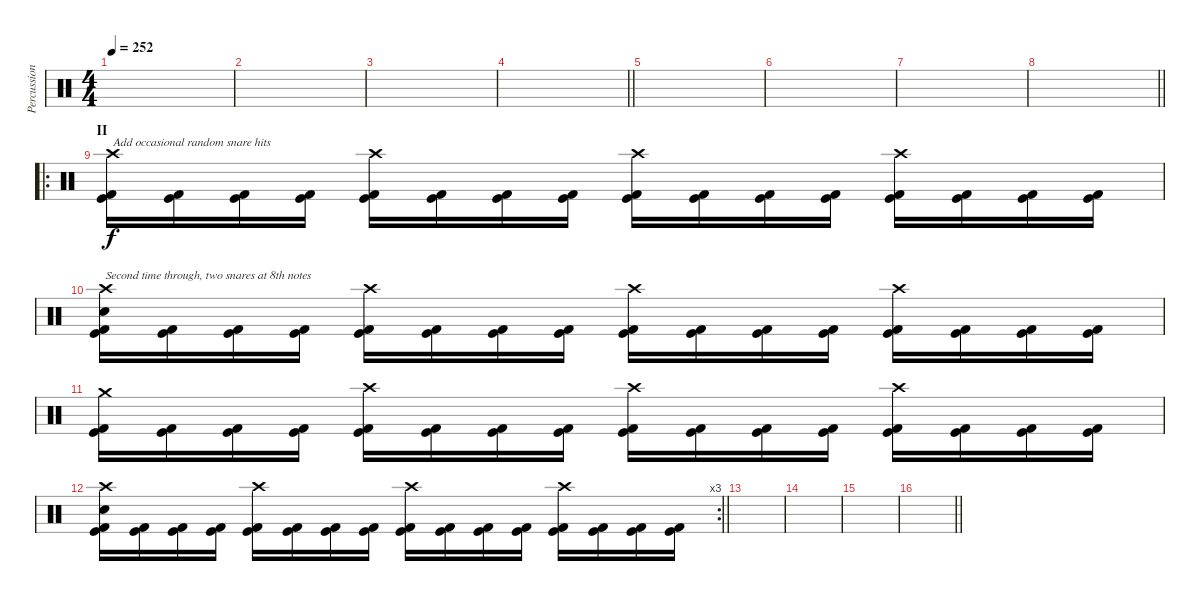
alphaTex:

\track ("Percussion" "Percussion") {mute instrument percussion}
\staff {score}
\articulation defaults
\ts (4 4)
\tempo 252
\clef neutral
\ks c
|
|
|
\barLineRight lightlight
|
|
|
|
\barLineRight lightlight
|
\ro
\section ("" "II")
("Crash high (hit)" "Kick (hit)" "Kick (hit) 2").16{txt "Add occasional random snare hits"} ("Kick (hit)" "Kick (hit) 2").16 ("Kick (hit)" "Kick (hit) 2").16 ("Kick (hit)" "Kick (hit) 2").16 ("Crash high (hit)" "Kick (hit)" "Kick (hit) 2").16 ("Kick (hit)" "Kick (hit) 2").16 ("Kick (hit)" "Kick (hit) 2").16 ("Kick (hit)" "Kick (hit) 2").16 ("Crash high (hit)" "Kick (hit)" "Kick (hit) 2").16 ("Kick (hit)" "Kick (hit) 2").16 ("Kick (hit)" "Kick (hit) 2").16 ("Kick (hit)" "Kick (hit) 2").16 ("Crash high (hit)" "Kick (hit)" "Kick (hit) 2").16 ("Kick (hit)" "Kick (hit) 2").16 ("Kick (hit)" "Kick (hit) 2").16 ("Kick (hit)" "Kick (hit) 2").16 |
("Crash high (hit)" "Electric Snare (hit)" "Kick (hit)" "Kick (hit) 2").16{txt "Second time through, two snares at 8th notes"} ("Kick (hit)" "Kick (hit) 2").16 ("Kick (hit)" "Kick (hit) 2").16 ("Kick (hit)" "Kick (hit) 2").16 ("Crash high (hit)" "Kick (hit)" "Kick (hit) 2").16 ("Kick (hit)" "Kick (hit) 2").16 ("Kick (hit)" "Kick (hit) 2").16 ("Kick (hit)" "Kick (hit) 2").16 ("Crash high (hit)" "Kick (hit)" "Kick (hit) 2").16 ("Kick (hit)" "Kick (hit) 2").16 ("Kick (hit)" "Kick (hit) 2").16 ("Kick (hit)" "Kick (hit) 2").16 ("Crash high (hit)" "Kick (hit)" "Kick (hit) 2").16 ("Kick (hit)" "Kick (hit) 2").16 ("Kick (hit)" "Kick (hit) 2").16 ("Kick (hit)" "Kick (hit) 2").16 |
("Crash medium (hit)" "Kick (hit)" "Kick (hit) 2").16 ("Kick (hit)" "Kick (hit) 2").16 ("Kick (hit)" "Kick (hit) 2").16 ("Kick (hit)" "Kick (hit) 2").16 ("Crash high (hit)" "Kick (hit)" "Kick (hit) 2").16 ("Kick (hit)" "Kick (hit) 2").16 ("Kick (hit)" "Kick (hit) 2").16 ("Kick (hit)" "Kick (hit) 2").16 ("Crash high (hit)" "Kick (hit)" "Kick (hit) 2").16 ("Kick (hit)" "Kick (hit) 2").16 ("Kick (hit)" "Kick (hit) 2").16 ("Kick (hit)" "Kick (hit) 2").16 ("Crash high (hit)" "Kick (hit)" "Kick (hit) 2").16 ("Kick (hit)" "Kick (hit) 2").16 ("Kick (hit)" "Kick (hit) 2").16 ("Kick (hit)" "Kick (hit) 2").16 |
\rc 3
\barLineRight lightlight
("Crash high (hit)" "Electric Snare (hit)" "Kick (hit)" "Kick (hit) 2").16 ("Kick (hit)" "Kick (hit) 2").16 ("Kick (hit)" "Kick (hit) 2").16 ("Kick (hit)" "Kick (hit) 2").16 ("Crash high (hit)" "Kick (hit)" "Kick (hit) 2").16 ("Kick (hit)" "Kick (hit) 2").16 ("Kick (hit)" "Kick (hit) 2").16 ("Kick (hit)" "Kick (hit) 2").16 ("Crash high (hit)" "Kick (hit)" "Kick (hit) 2").16 ("Kick (hit)" "Kick (hit) 2").16 ("Kick (hit)" "Kick (hit) 2").16 ("Kick (hit)" "Kick (hit) 2").16 ("Crash high (hit)" "Kick (hit)" "Kick (hit) 2").16 ("Kick (hit)" "Kick (hit) 2").16 ("Kick (hit)" "Kick (hit) 2").16 ("Kick (hit)" "Kick (hit) 2").16 |
|
|
|
\barLineRight lightlight
